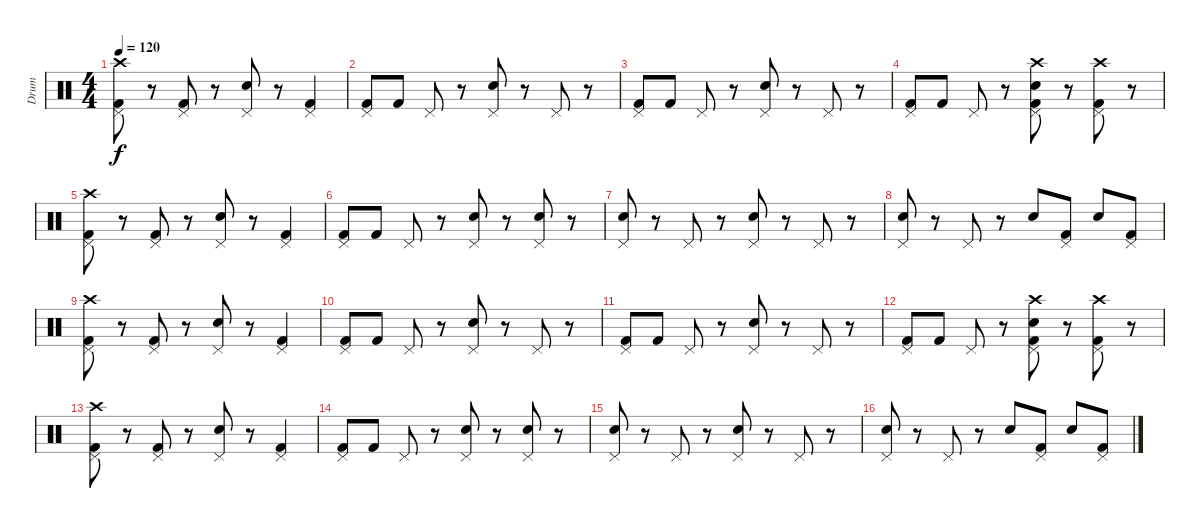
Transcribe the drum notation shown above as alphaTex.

\track ("Drum" "Drum") {instrument percussion}
\staff {score}
\articulation defaults
\ts (4 4)
\tempo 120
\clef neutral
\ks c
("Crash high (hit)" "Kick (hit) 2" "Pedal Hi-Hat (hit)").8{dy f} r.8 ("Kick (hit) 2" "Pedal Hi-Hat (hit)").8 r.8 ("Electric Snare (hit)" "Pedal Hi-Hat (hit)").8 r.8 ("Kick (hit) 2" "Pedal Hi-Hat (hit)").4 |
("Kick (hit) 2" "Pedal Hi-Hat (hit)").8 "Kick (hit) 2".8 "Pedal Hi-Hat (hit)".8 r.8 ("Electric Snare (hit)" "Pedal Hi-Hat (hit)").8 r.8 "Pedal Hi-Hat (hit)".8 r.8 |
("Kick (hit) 2" "Pedal Hi-Hat (hit)").8 "Kick (hit) 2".8 "Pedal Hi-Hat (hit)".8 r.8 ("Electric Snare (hit)" "Pedal Hi-Hat (hit)").8 r.8 "Pedal Hi-Hat (hit)".8 r.8 |
("Kick (hit) 2" "Pedal Hi-Hat (hit)").8 "Kick (hit) 2".8 "Pedal Hi-Hat (hit)".8 r.8 ("Crash high (hit)" "Electric Snare (hit)" "Kick (hit) 2" "Pedal Hi-Hat (hit)").8 r.8 ("Crash high (hit)" "Kick (hit) 2" "Pedal Hi-Hat (hit)").8 r.8 |
("Crash high (hit)" "Kick (hit) 2" "Pedal Hi-Hat (hit)").8 r.8 ("Kick (hit) 2" "Pedal Hi-Hat (hit)").8 r.8 ("Electric Snare (hit)" "Pedal Hi-Hat (hit)").8 r.8 ("Kick (hit) 2" "Pedal Hi-Hat (hit)").4 |
("Kick (hit) 2" "Pedal Hi-Hat (hit)").8 "Kick (hit) 2".8 "Pedal Hi-Hat (hit)".8 r.8 ("Electric Snare (hit)" "Pedal Hi-Hat (hit)").8 r.8 ("Electric Snare (hit)" "Pedal Hi-Hat (hit)").8 r.8 |
("Electric Snare (hit)" "Pedal Hi-Hat (hit)").8 r.8 "Pedal Hi-Hat (hit)".8 r.8 ("Electric Snare (hit)" "Pedal Hi-Hat (hit)").8 r.8 "Pedal Hi-Hat (hit)".8 r.8 |
("Electric Snare (hit)" "Pedal Hi-Hat (hit)").8 r.8 "Pedal Hi-Hat (hit)".8 r.8 "Electric Snare (hit)".8 ("Kick (hit) 2" "Pedal Hi-Hat (hit)").8 "Electric Snare (hit)".8 ("Kick (hit) 2" "Pedal Hi-Hat (hit)").8 |
("Crash high (hit)" "Kick (hit) 2" "Pedal Hi-Hat (hit)").8 r.8 ("Kick (hit) 2" "Pedal Hi-Hat (hit)").8 r.8 ("Electric Snare (hit)" "Pedal Hi-Hat (hit)").8 r.8 ("Kick (hit) 2" "Pedal Hi-Hat (hit)").4 |
("Kick (hit) 2" "Pedal Hi-Hat (hit)").8 "Kick (hit) 2".8 "Pedal Hi-Hat (hit)".8 r.8 ("Electric Snare (hit)" "Pedal Hi-Hat (hit)").8 r.8 "Pedal Hi-Hat (hit)".8 r.8 |
("Kick (hit) 2" "Pedal Hi-Hat (hit)").8 "Kick (hit) 2".8 "Pedal Hi-Hat (hit)".8 r.8 ("Electric Snare (hit)" "Pedal Hi-Hat (hit)").8 r.8 "Pedal Hi-Hat (hit)".8 r.8 |
("Kick (hit) 2" "Pedal Hi-Hat (hit)").8 "Kick (hit) 2".8 "Pedal Hi-Hat (hit)".8 r.8 ("Crash high (hit)" "Electric Snare (hit)" "Kick (hit) 2" "Pedal Hi-Hat (hit)").8 r.8 ("Crash high (hit)" "Kick (hit) 2" "Pedal Hi-Hat (hit)").8 r.8 |
("Crash high (hit)" "Kick (hit) 2" "Pedal Hi-Hat (hit)").8 r.8 ("Kick (hit) 2" "Pedal Hi-Hat (hit)").8 r.8 ("Electric Snare (hit)" "Pedal Hi-Hat (hit)").8 r.8 ("Kick (hit) 2" "Pedal Hi-Hat (hit)").4 |
("Kick (hit) 2" "Pedal Hi-Hat (hit)").8 "Kick (hit) 2".8 "Pedal Hi-Hat (hit)".8 r.8 ("Electric Snare (hit)" "Pedal Hi-Hat (hit)").8 r.8 ("Electric Snare (hit)" "Pedal Hi-Hat (hit)").8 r.8 |
("Electric Snare (hit)" "Pedal Hi-Hat (hit)").8 r.8 "Pedal Hi-Hat (hit)".8 r.8 ("Electric Snare (hit)" "Pedal Hi-Hat (hit)").8 r.8 "Pedal Hi-Hat (hit)".8 r.8 |
("Electric Snare (hit)" "Pedal Hi-Hat (hit)").8 r.8 "Pedal Hi-Hat (hit)".8 r.8 "Electric Snare (hit)".8 ("Kick (hit) 2" "Pedal Hi-Hat (hit)").8 "Electric Snare (hit)".8 ("Kick (hit) 2" "Pedal Hi-Hat (hit)").8
